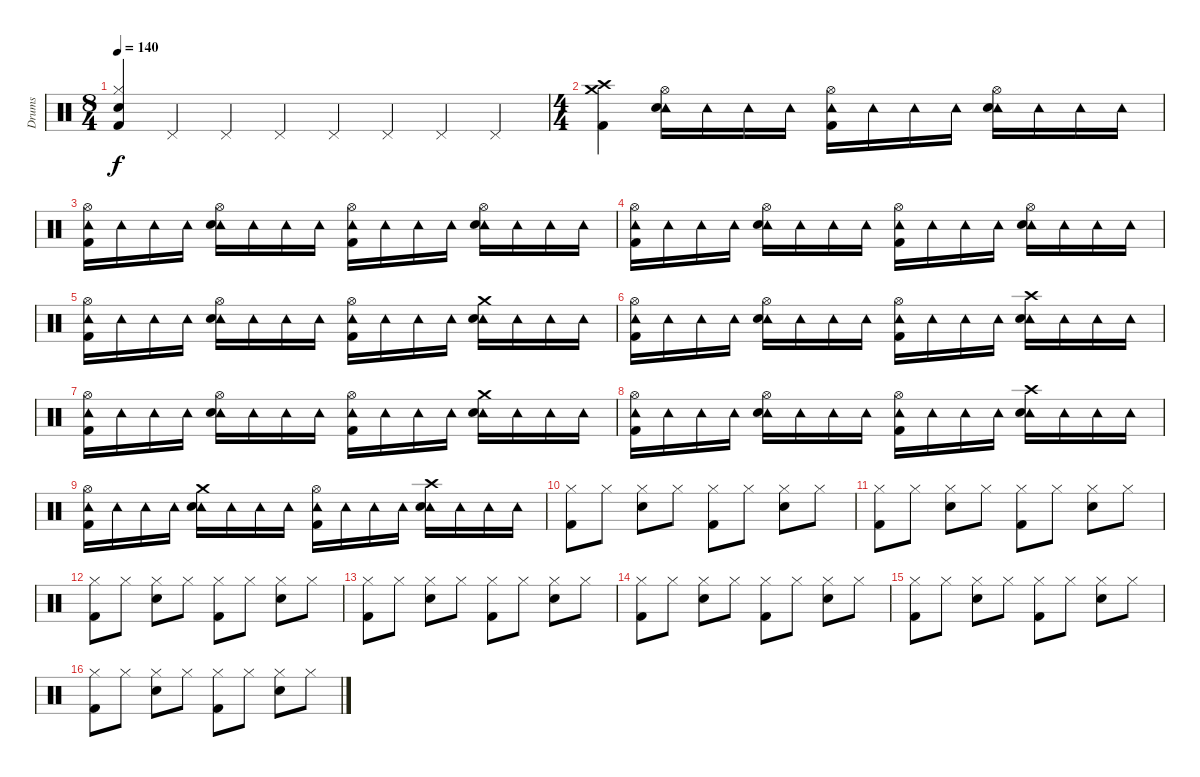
\track ("Drums" "Drums") {instrument percussion}
\staff {score}
\articulation defaults
\ts (8 4)
\tempo 140
\clef neutral
\ks c
("Snare (hit) 2" "Hi-Hat (closed)" "Kick (hit) 2").4{dy f} "Pedal Hi-Hat (hit)".4 "Pedal Hi-Hat (hit)".4 "Pedal Hi-Hat (hit)".4 "Pedal Hi-Hat (hit)".4 "Pedal Hi-Hat (hit)".4 "Pedal Hi-Hat (hit)".4 "Pedal Hi-Hat (hit)".4 |
\ts (4 4)
("Crash medium (hit)" "Crash high (hit)" "Kick (hit) 2").4 ("Tambourine (hit)" "Hi-Hat (open)" "Snare (hit) 2").16 "Tambourine (hit)".16 "Tambourine (hit)".16 "Tambourine (hit)".16 ("Tambourine (hit)" "Hi-Hat (open)" "Kick (hit) 2").16 "Tambourine (hit)".16 "Tambourine (hit)".16 "Tambourine (hit)".16 ("Tambourine (hit)" "Hi-Hat (open)" "Snare (hit) 2").16 "Tambourine (hit)".16 "Tambourine (hit)".16 "Tambourine (hit)".16 |
("Tambourine (hit)" "Hi-Hat (open)" "Kick (hit) 2").16 "Tambourine (hit)".16 "Tambourine (hit)".16 "Tambourine (hit)".16 ("Tambourine (hit)" "Hi-Hat (open)" "Snare (hit) 2").16 "Tambourine (hit)".16 "Tambourine (hit)".16 "Tambourine (hit)".16 ("Tambourine (hit)" "Hi-Hat (open)" "Kick (hit) 2").16 "Tambourine (hit)".16 "Tambourine (hit)".16 "Tambourine (hit)".16 ("Tambourine (hit)" "Hi-Hat (open)" "Snare (hit) 2").16 "Tambourine (hit)".16 "Tambourine (hit)".16 "Tambourine (hit)".16 |
("Tambourine (hit)" "Hi-Hat (open)" "Kick (hit) 2").16 "Tambourine (hit)".16 "Tambourine (hit)".16 "Tambourine (hit)".16 ("Tambourine (hit)" "Hi-Hat (open)" "Snare (hit) 2").16 "Tambourine (hit)".16 "Tambourine (hit)".16 "Tambourine (hit)".16 ("Tambourine (hit)" "Hi-Hat (open)" "Kick (hit) 2").16 "Tambourine (hit)".16 "Tambourine (hit)".16 "Tambourine (hit)".16 ("Tambourine (hit)" "Hi-Hat (open)" "Snare (hit) 2").16 "Tambourine (hit)".16 "Tambourine (hit)".16 "Tambourine (hit)".16 |
("Tambourine (hit)" "Hi-Hat (open)" "Kick (hit) 2").16 "Tambourine (hit)".16 "Tambourine (hit)".16 "Tambourine (hit)".16 ("Tambourine (hit)" "Hi-Hat (open)" "Snare (hit) 2").16 "Tambourine (hit)".16 "Tambourine (hit)".16 "Tambourine (hit)".16 ("Tambourine (hit)" "Hi-Hat (open)" "Kick (hit) 2").16 "Tambourine (hit)".16 "Tambourine (hit)".16 "Tambourine (hit)".16 ("Tambourine (hit)" "Crash medium (hit)" "Snare (hit) 2").16 "Tambourine (hit)".16 "Tambourine (hit)".16 "Tambourine (hit)".16 |
("Tambourine (hit)" "Hi-Hat (open)" "Kick (hit) 2").16 "Tambourine (hit)".16 "Tambourine (hit)".16 "Tambourine (hit)".16 ("Tambourine (hit)" "Hi-Hat (open)" "Snare (hit) 2").16 "Tambourine (hit)".16 "Tambourine (hit)".16 "Tambourine (hit)".16 ("Tambourine (hit)" "Hi-Hat (open)" "Kick (hit) 2").16 "Tambourine (hit)".16 "Tambourine (hit)".16 "Tambourine (hit)".16 ("Tambourine (hit)" "Crash high (hit)" "Snare (hit) 2").16 "Tambourine (hit)".16 "Tambourine (hit)".16 "Tambourine (hit)".16 |
("Tambourine (hit)" "Hi-Hat (open)" "Kick (hit) 2").16 "Tambourine (hit)".16 "Tambourine (hit)".16 "Tambourine (hit)".16 ("Tambourine (hit)" "Hi-Hat (open)" "Snare (hit) 2").16 "Tambourine (hit)".16 "Tambourine (hit)".16 "Tambourine (hit)".16 ("Tambourine (hit)" "Hi-Hat (open)" "Kick (hit) 2").16 "Tambourine (hit)".16 "Tambourine (hit)".16 "Tambourine (hit)".16 ("Tambourine (hit)" "Crash medium (hit)" "Snare (hit) 2").16 "Tambourine (hit)".16 "Tambourine (hit)".16 "Tambourine (hit)".16 |
("Tambourine (hit)" "Hi-Hat (open)" "Kick (hit) 2").16 "Tambourine (hit)".16 "Tambourine (hit)".16 "Tambourine (hit)".16 ("Tambourine (hit)" "Hi-Hat (open)" "Snare (hit) 2").16 "Tambourine (hit)".16 "Tambourine (hit)".16 "Tambourine (hit)".16 ("Tambourine (hit)" "Hi-Hat (open)" "Kick (hit) 2").16 "Tambourine (hit)".16 "Tambourine (hit)".16 "Tambourine (hit)".16 ("Tambourine (hit)" "Crash high (hit)" "Snare (hit) 2").16 "Tambourine (hit)".16 "Tambourine (hit)".16 "Tambourine (hit)".16 |
("Tambourine (hit)" "Hi-Hat (open)" "Kick (hit) 2").16 "Tambourine (hit)".16 "Tambourine (hit)".16 "Tambourine (hit)".16 ("Tambourine (hit)" "Crash medium (hit)" "Snare (hit) 2").16 "Tambourine (hit)".16 "Tambourine (hit)".16 "Tambourine (hit)".16 ("Tambourine (hit)" "Hi-Hat (open)" "Kick (hit) 2").16 "Tambourine (hit)".16 "Tambourine (hit)".16 "Tambourine (hit)".16 ("Tambourine (hit)" "Crash high (hit)" "Snare (hit) 2").16 "Tambourine (hit)".16 "Tambourine (hit)".16 "Tambourine (hit)".16 |
("Hi-Hat (closed)" "Kick (hit) 2").8 "Hi-Hat (closed)".8 ("Hi-Hat (closed)" "Snare (hit) 2").8 "Hi-Hat (closed)".8 ("Hi-Hat (closed)" "Kick (hit) 2").8 "Hi-Hat (closed)".8 ("Hi-Hat (closed)" "Snare (hit) 2").8 "Hi-Hat (closed)".8 |
("Hi-Hat (closed)" "Kick (hit) 2").8 "Hi-Hat (closed)".8 ("Hi-Hat (closed)" "Snare (hit) 2").8 "Hi-Hat (closed)".8 ("Hi-Hat (closed)" "Kick (hit) 2").8 "Hi-Hat (closed)".8 ("Hi-Hat (closed)" "Snare (hit) 2").8 "Hi-Hat (closed)".8 |
("Hi-Hat (closed)" "Kick (hit) 2").8 "Hi-Hat (closed)".8 ("Hi-Hat (closed)" "Snare (hit) 2").8 "Hi-Hat (closed)".8 ("Hi-Hat (closed)" "Kick (hit) 2").8 "Hi-Hat (closed)".8 ("Hi-Hat (closed)" "Snare (hit) 2").8 "Hi-Hat (closed)".8 |
("Hi-Hat (closed)" "Kick (hit) 2").8 "Hi-Hat (closed)".8 ("Hi-Hat (closed)" "Snare (hit) 2").8 "Hi-Hat (closed)".8 ("Hi-Hat (closed)" "Kick (hit) 2").8 "Hi-Hat (closed)".8 ("Hi-Hat (closed)" "Snare (hit) 2").8 "Hi-Hat (closed)".8 |
("Hi-Hat (closed)" "Kick (hit) 2").8 "Hi-Hat (closed)".8 ("Hi-Hat (closed)" "Snare (hit) 2").8 "Hi-Hat (closed)".8 ("Hi-Hat (closed)" "Kick (hit) 2").8 "Hi-Hat (closed)".8 ("Hi-Hat (closed)" "Snare (hit) 2").8 "Hi-Hat (closed)".8 |
("Hi-Hat (closed)" "Kick (hit) 2").8 "Hi-Hat (closed)".8 ("Hi-Hat (closed)" "Snare (hit) 2").8 "Hi-Hat (closed)".8 ("Hi-Hat (closed)" "Kick (hit) 2").8 "Hi-Hat (closed)".8 ("Hi-Hat (closed)" "Snare (hit) 2").8 "Hi-Hat (closed)".8 |
("Hi-Hat (closed)" "Kick (hit) 2").8 "Hi-Hat (closed)".8 ("Hi-Hat (closed)" "Snare (hit) 2").8 "Hi-Hat (closed)".8 ("Hi-Hat (closed)" "Kick (hit) 2").8 "Hi-Hat (closed)".8 ("Hi-Hat (closed)" "Snare (hit) 2").8 "Hi-Hat (closed)".8
